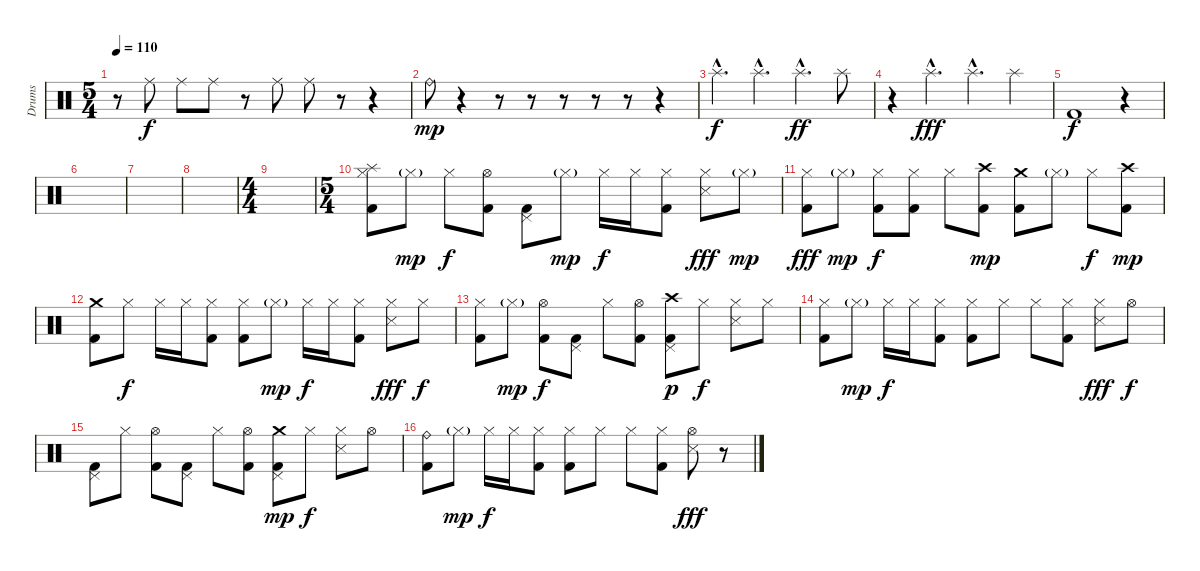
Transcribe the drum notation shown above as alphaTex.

\track ("Drums" "Drums") {instrument percussion}
\staff {score}
\articulation defaults
\ts (5 4)
\tempo 110
\clef neutral
\ks c
r.8{dy f} "Ride (middle)".8 "Ride (middle)".8 "Ride (middle)".8 r.8 "Ride (middle)".8 "Ride (middle)".8 r.8 r.4 |
"Ride (bell)".8{dy mp} r.4 r.8 r.8 r.8 r.8 r.8 r.4 |
"Splash (hit)"{hac}.4{d dy f} "Splash (hit)"{hac}.4{d} "Splash (hit)"{hac}.4{d dy ff} "Splash (hit)".8 |
r.4 "Splash (hit)"{hac}.4{d dy fff} "Splash (hit)"{hac}.4{d} "Splash (hit)".4 |
"Kick (hit) 2".1{dy f} r.4 |
|
|
|
\ts (4 4)
|
\ts (5 4)
("Hi-Hat (closed)" "Splash (hit)" "Kick (hit) 2").8 "Hi-Hat (closed)"{g}.8{dy mp} "Hi-Hat (closed)".8{dy f} ("Hi-Hat (open)" "Kick (hit) 2").8 ("Pedal Hi-Hat (hit)" "Kick (hit) 2").8 "Hi-Hat (closed)"{g}.8{dy mp} "Hi-Hat (closed)".16{dy f} "Hi-Hat (closed)".16 ("Hi-Hat (closed)" "Kick (hit) 2").8 ("Hi-Hat (closed)" "Snare (side stick) 3").8{dy fff} "Hi-Hat (closed)"{g}.8{dy mp} |
("Hi-Hat (closed)" "Kick (hit) 2").8{dy fff} "Hi-Hat (closed)"{g}.8{dy mp} ("Hi-Hat (closed)" "Kick (hit) 2").8{dy f} ("Hi-Hat (closed)" "Kick (hit) 2").8 "Hi-Hat (closed)".8 ("Crash high (hit)" "Kick (hit) 2").8{dy mp} ("Crash medium (hit)" "Kick (hit) 2").8 "Hi-Hat (closed)"{g}.8 "Hi-Hat (closed)".8{dy f} ("Crash high (hit)" "Kick (hit) 2").8{dy mp} |
("Crash medium (hit)" "Kick (hit) 2").8 "Hi-Hat (closed)".8{dy f} "Hi-Hat (closed)".16 "Hi-Hat (closed)".16 ("Hi-Hat (closed)" "Kick (hit) 2").8 ("Hi-Hat (closed)" "Kick (hit) 2").8 "Hi-Hat (closed)"{g}.8{dy mp} "Hi-Hat (closed)".16{dy f} "Hi-Hat (closed)".16 ("Hi-Hat (closed)" "Kick (hit) 2").8 ("Hi-Hat (closed)" "Snare (side stick) 3").8{dy fff} "Hi-Hat (closed)".8{dy f} |
("Hi-Hat (closed)" "Kick (hit) 2").8 "Hi-Hat (closed)"{g}.8{dy mp} ("Hi-Hat (open)" "Kick (hit) 2").8{dy f} ("Pedal Hi-Hat (hit)" "Kick (hit) 2").8 "Hi-Hat (closed)".8 ("Hi-Hat (open)" "Kick (hit) 2").8 ("Pedal Hi-Hat (hit)" "Crash high (hit)" "Kick (hit) 2").8{dy p} "Hi-Hat (closed)".8{dy f} ("Hi-Hat (closed)" "Snare (side stick) 3").8 "Hi-Hat (closed)".8 |
("Hi-Hat (closed)" "Kick (hit) 2").8 "Hi-Hat (closed)"{g}.8{dy mp} "Hi-Hat (closed)".16{dy f} "Hi-Hat (closed)".16 ("Hi-Hat (closed)" "Kick (hit) 2").8 ("Hi-Hat (closed)" "Kick (hit) 2").8 "Hi-Hat (closed)".8 "Hi-Hat (closed)".8 ("Hi-Hat (closed)" "Kick (hit) 2").8 ("Hi-Hat (closed)" "Snare (side stick) 3").8{dy fff} "Hi-Hat (open)".8{dy f} |
("Pedal Hi-Hat (hit)" "Kick (hit) 2").8 "Hi-Hat (closed)".8 ("Hi-Hat (open)" "Kick (hit) 2").8 ("Pedal Hi-Hat (hit)" "Kick (hit) 2").8 "Hi-Hat (closed)".8 ("Hi-Hat (open)" "Kick (hit) 2").8 ("Pedal Hi-Hat (hit)" "Crash medium (hit)" "Kick (hit) 2").8{dy mp} "Hi-Hat (closed)".8{dy f} ("Hi-Hat (closed)" "Snare (side stick) 3").8 "Hi-Hat (open)".8 |
("Ride (bell)" "Kick (hit) 2").8 "Hi-Hat (closed)"{g}.8{dy mp} "Hi-Hat (closed)".16{dy f} "Hi-Hat (closed)".16 ("Hi-Hat (closed)" "Kick (hit) 2").8 ("Hi-Hat (closed)" "Kick (hit) 2").8 "Hi-Hat (closed)".8 "Hi-Hat (closed)".8 ("Hi-Hat (closed)" "Kick (hit) 2").8 ("Hi-Hat (open)" "Snare (side stick) 3").8{dy fff} r.8
